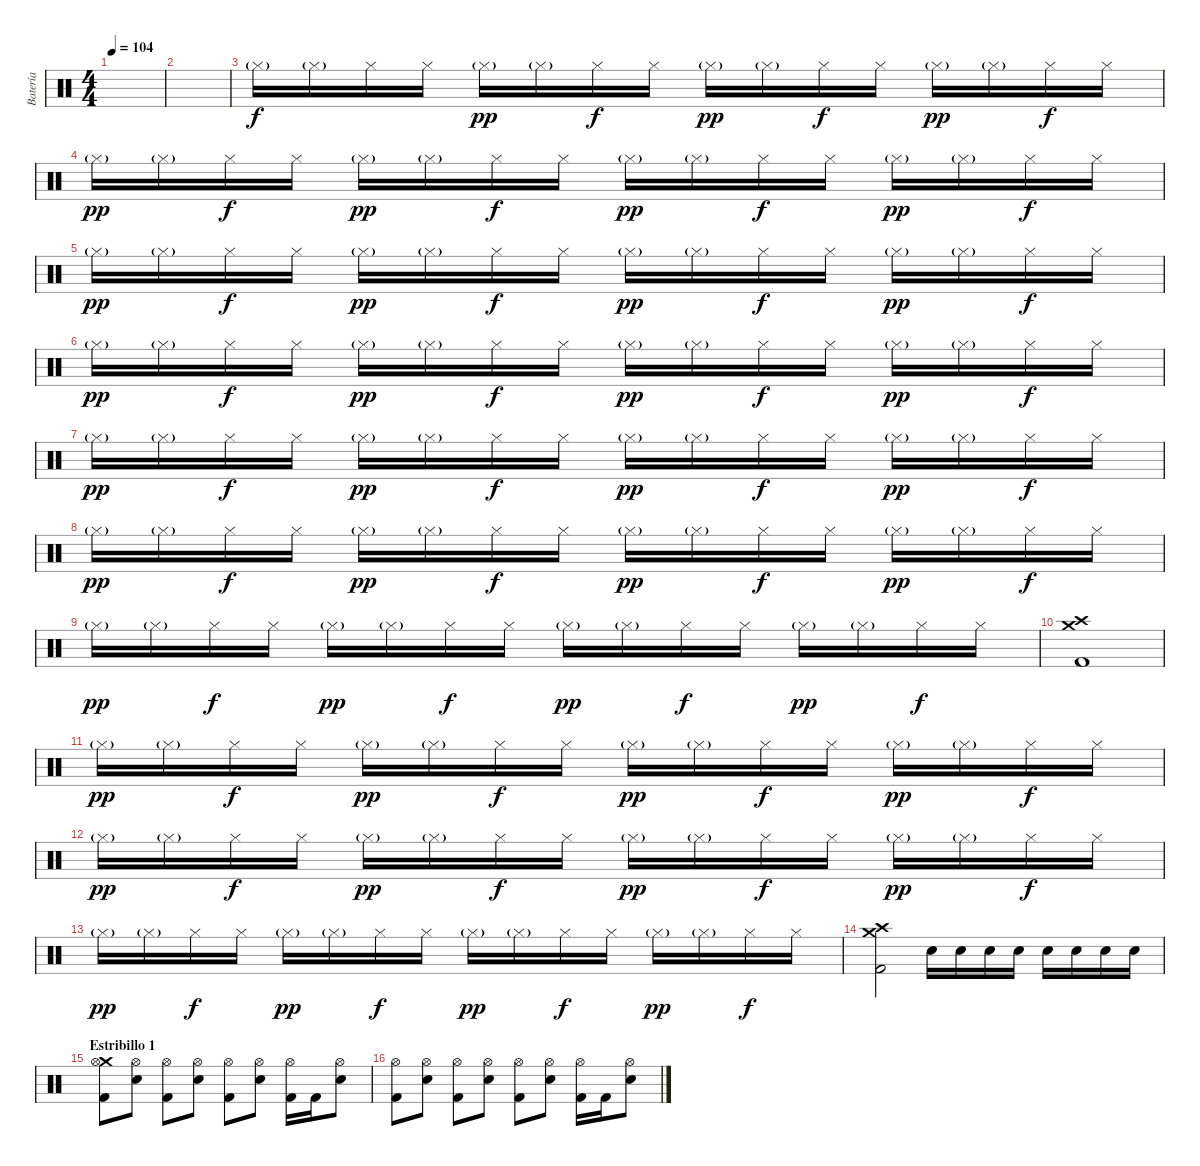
\track ("Batería" "Batería") {instrument percussion}
\staff {score}
\articulation defaults
\ts (4 4)
\tempo 104
\clef neutral
\ks c
|
|
"Hi-Hat (closed)"{g}.16 "Hi-Hat (closed)"{g}.16 "Hi-Hat (closed)".16{dy f} "Hi-Hat (closed)".16 "Hi-Hat (closed)"{g}.16{dy pp} "Hi-Hat (closed)"{g}.16 "Hi-Hat (closed)".16{dy f} "Hi-Hat (closed)".16 "Hi-Hat (closed)"{g}.16{dy pp} "Hi-Hat (closed)"{g}.16 "Hi-Hat (closed)".16{dy f} "Hi-Hat (closed)".16 "Hi-Hat (closed)"{g}.16{dy pp} "Hi-Hat (closed)"{g}.16 "Hi-Hat (closed)".16{dy f} "Hi-Hat (closed)".16 |
"Hi-Hat (closed)"{g}.16{dy pp} "Hi-Hat (closed)"{g}.16 "Hi-Hat (closed)".16{dy f} "Hi-Hat (closed)".16 "Hi-Hat (closed)"{g}.16{dy pp} "Hi-Hat (closed)"{g}.16 "Hi-Hat (closed)".16{dy f} "Hi-Hat (closed)".16 "Hi-Hat (closed)"{g}.16{dy pp} "Hi-Hat (closed)"{g}.16 "Hi-Hat (closed)".16{dy f} "Hi-Hat (closed)".16 "Hi-Hat (closed)"{g}.16{dy pp} "Hi-Hat (closed)"{g}.16 "Hi-Hat (closed)".16{dy f} "Hi-Hat (closed)".16 |
"Hi-Hat (closed)"{g}.16{dy pp} "Hi-Hat (closed)"{g}.16 "Hi-Hat (closed)".16{dy f} "Hi-Hat (closed)".16 "Hi-Hat (closed)"{g}.16{dy pp} "Hi-Hat (closed)"{g}.16 "Hi-Hat (closed)".16{dy f} "Hi-Hat (closed)".16 "Hi-Hat (closed)"{g}.16{dy pp} "Hi-Hat (closed)"{g}.16 "Hi-Hat (closed)".16{dy f} "Hi-Hat (closed)".16 "Hi-Hat (closed)"{g}.16{dy pp} "Hi-Hat (closed)"{g}.16 "Hi-Hat (closed)".16{dy f} "Hi-Hat (closed)".16 |
"Hi-Hat (closed)"{g}.16{dy pp} "Hi-Hat (closed)"{g}.16 "Hi-Hat (closed)".16{dy f} "Hi-Hat (closed)".16 "Hi-Hat (closed)"{g}.16{dy pp} "Hi-Hat (closed)"{g}.16 "Hi-Hat (closed)".16{dy f} "Hi-Hat (closed)".16 "Hi-Hat (closed)"{g}.16{dy pp} "Hi-Hat (closed)"{g}.16 "Hi-Hat (closed)".16{dy f} "Hi-Hat (closed)".16 "Hi-Hat (closed)"{g}.16{dy pp} "Hi-Hat (closed)"{g}.16 "Hi-Hat (closed)".16{dy f} "Hi-Hat (closed)".16 |
"Hi-Hat (closed)"{g}.16{dy pp} "Hi-Hat (closed)"{g}.16 "Hi-Hat (closed)".16{dy f} "Hi-Hat (closed)".16 "Hi-Hat (closed)"{g}.16{dy pp} "Hi-Hat (closed)"{g}.16 "Hi-Hat (closed)".16{dy f} "Hi-Hat (closed)".16 "Hi-Hat (closed)"{g}.16{dy pp} "Hi-Hat (closed)"{g}.16 "Hi-Hat (closed)".16{dy f} "Hi-Hat (closed)".16 "Hi-Hat (closed)"{g}.16{dy pp} "Hi-Hat (closed)"{g}.16 "Hi-Hat (closed)".16{dy f} "Hi-Hat (closed)".16 |
"Hi-Hat (closed)"{g}.16{dy pp} "Hi-Hat (closed)"{g}.16 "Hi-Hat (closed)".16{dy f} "Hi-Hat (closed)".16 "Hi-Hat (closed)"{g}.16{dy pp} "Hi-Hat (closed)"{g}.16 "Hi-Hat (closed)".16{dy f} "Hi-Hat (closed)".16 "Hi-Hat (closed)"{g}.16{dy pp} "Hi-Hat (closed)"{g}.16 "Hi-Hat (closed)".16{dy f} "Hi-Hat (closed)".16 "Hi-Hat (closed)"{g}.16{dy pp} "Hi-Hat (closed)"{g}.16 "Hi-Hat (closed)".16{dy f} "Hi-Hat (closed)".16 |
"Hi-Hat (closed)"{g}.16{dy pp} "Hi-Hat (closed)"{g}.16 "Hi-Hat (closed)".16{dy f} "Hi-Hat (closed)".16 "Hi-Hat (closed)"{g}.16{dy pp} "Hi-Hat (closed)"{g}.16 "Hi-Hat (closed)".16{dy f} "Hi-Hat (closed)".16 "Hi-Hat (closed)"{g}.16{dy pp} "Hi-Hat (closed)"{g}.16 "Hi-Hat (closed)".16{dy f} "Hi-Hat (closed)".16 "Hi-Hat (closed)"{g}.16{dy pp} "Hi-Hat (closed)"{g}.16 "Hi-Hat (closed)".16{dy f} "Hi-Hat (closed)".16 |
("Crash high (hit)" "Crash medium (hit)" "Kick (hit) 2").1 |
"Hi-Hat (closed)"{g}.16{dy pp} "Hi-Hat (closed)"{g}.16 "Hi-Hat (closed)".16{dy f} "Hi-Hat (closed)".16 "Hi-Hat (closed)"{g}.16{dy pp} "Hi-Hat (closed)"{g}.16 "Hi-Hat (closed)".16{dy f} "Hi-Hat (closed)".16 "Hi-Hat (closed)"{g}.16{dy pp} "Hi-Hat (closed)"{g}.16 "Hi-Hat (closed)".16{dy f} "Hi-Hat (closed)".16 "Hi-Hat (closed)"{g}.16{dy pp} "Hi-Hat (closed)"{g}.16 "Hi-Hat (closed)".16{dy f} "Hi-Hat (closed)".16 |
"Hi-Hat (closed)"{g}.16{dy pp} "Hi-Hat (closed)"{g}.16 "Hi-Hat (closed)".16{dy f} "Hi-Hat (closed)".16 "Hi-Hat (closed)"{g}.16{dy pp} "Hi-Hat (closed)"{g}.16 "Hi-Hat (closed)".16{dy f} "Hi-Hat (closed)".16 "Hi-Hat (closed)"{g}.16{dy pp} "Hi-Hat (closed)"{g}.16 "Hi-Hat (closed)".16{dy f} "Hi-Hat (closed)".16 "Hi-Hat (closed)"{g}.16{dy pp} "Hi-Hat (closed)"{g}.16 "Hi-Hat (closed)".16{dy f} "Hi-Hat (closed)".16 |
"Hi-Hat (closed)"{g}.16{dy pp} "Hi-Hat (closed)"{g}.16 "Hi-Hat (closed)".16{dy f} "Hi-Hat (closed)".16 "Hi-Hat (closed)"{g}.16{dy pp} "Hi-Hat (closed)"{g}.16 "Hi-Hat (closed)".16{dy f} "Hi-Hat (closed)".16 "Hi-Hat (closed)"{g}.16{dy pp} "Hi-Hat (closed)"{g}.16 "Hi-Hat (closed)".16{dy f} "Hi-Hat (closed)".16 "Hi-Hat (closed)"{g}.16{dy pp} "Hi-Hat (closed)"{g}.16 "Hi-Hat (closed)".16{dy f} "Hi-Hat (closed)".16 |
("Crash high (hit)" "Crash medium (hit)" "Kick (hit) 2").2 "Snare (hit) 2".16 "Snare (hit) 2".16 "Snare (hit) 2".16 "Snare (hit) 2".16 "Snare (hit) 2".16 "Snare (hit) 2".16 "Snare (hit) 2".16 "Snare (hit) 2".16 |
\section ("" "Estribillo 1")
("Crash medium (hit)" "Hi-Hat (open)" "Kick (hit) 2").8 ("Hi-Hat (open)" "Snare (hit) 2").8 ("Hi-Hat (open)" "Kick (hit) 2").8 ("Hi-Hat (open)" "Snare (hit) 2").8 ("Hi-Hat (open)" "Kick (hit) 2").8 ("Hi-Hat (open)" "Snare (hit) 2").8 ("Hi-Hat (open)" "Kick (hit) 2").16 "Kick (hit) 2".16 ("Hi-Hat (open)" "Snare (hit) 2").8 |
("Hi-Hat (open)" "Kick (hit) 2").8 ("Hi-Hat (open)" "Snare (hit) 2").8 ("Hi-Hat (open)" "Kick (hit) 2").8 ("Hi-Hat (open)" "Snare (hit) 2").8 ("Hi-Hat (open)" "Kick (hit) 2").8 ("Hi-Hat (open)" "Snare (hit) 2").8 ("Hi-Hat (open)" "Kick (hit) 2").16 "Kick (hit) 2".16 ("Hi-Hat (open)" "Snare (hit) 2").8
